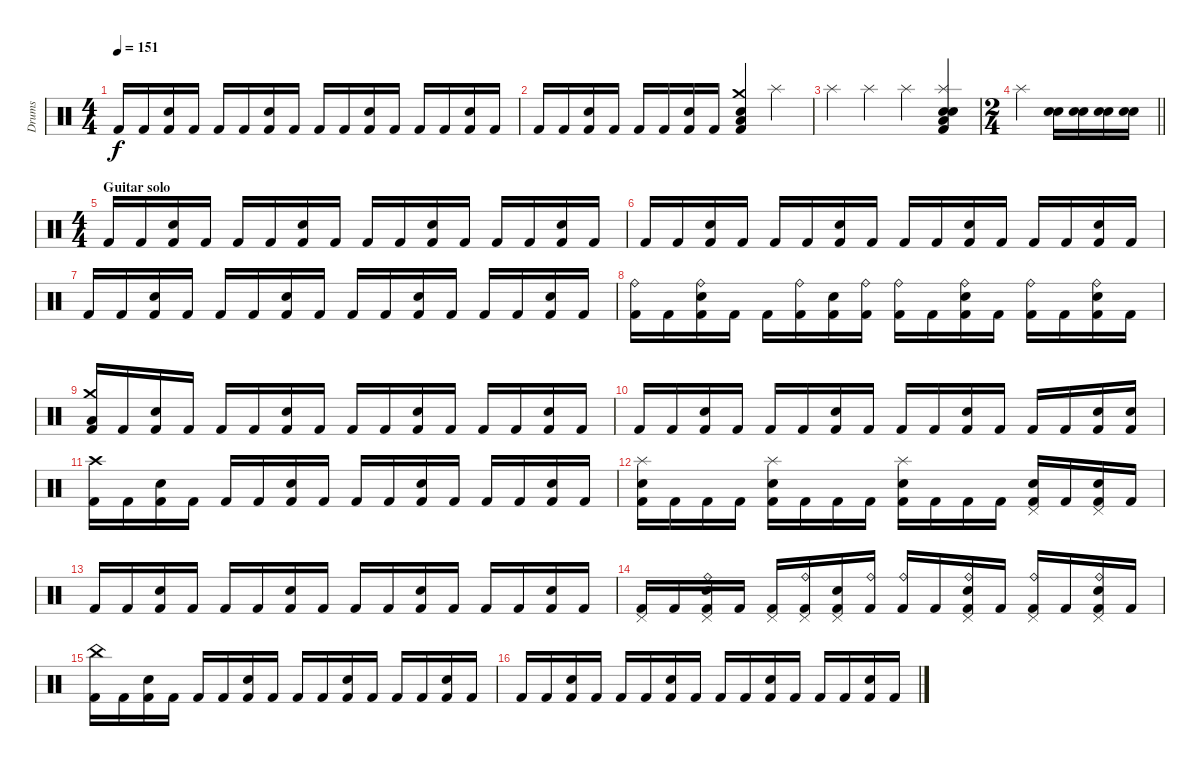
\track ("Drums" "Drums") {instrument percussion}
\staff {score}
\articulation defaults
\ts (4 4)
\tempo 151
\clef neutral
\ks c "Kick (hit) 2".16{dy f} "Kick (hit) 2".16
("Snare (hit) 2" "Kick (hit) 2").16 "Kick (hit) 2".16 "Kick (hit) 2".16 "Kick (hit) 2".16 ("Snare (hit) 2" "Kick (hit) 2").16 "Kick (hit) 2".16 "Kick (hit) 2".16 "Kick (hit) 2".16 ("Snare (hit) 2" "Kick (hit) 2").16 "Kick (hit) 2".16 "Kick (hit) 2".16 "Kick (hit) 2".16 ("Snare (hit) 2" "Kick (hit) 2").16 "Kick (hit) 2".16 |
"Kick (hit) 2".16 "Kick (hit) 2".16 ("Snare (hit) 2" "Kick (hit) 2").16 "Kick (hit) 2".16 "Kick (hit) 2".16 "Kick (hit) 2".16 ("Snare (hit) 2" "Kick (hit) 2").16 "Kick (hit) 2".16 ("Crash medium (hit)" "Low Floor Tom (hit)" "Snare (hit) 2" "Kick (hit) 2").4 "Splash (hit)".4 |
"Splash (hit)".4 "Splash (hit)".4 "Splash (hit)".4 ("Splash (hit)" "Snare (hit) 2" "Electric Snare (hit)" "Low Floor Tom (hit)" "Kick (hit) 2").4 |
\ts (2 4)
\barLineRight lightlight "Splash (hit)".4
("Electric Snare (hit)" "Snare (hit) 2").16 ("Electric Snare (hit)" "Snare (hit) 2").16 ("Electric Snare (hit)" "Snare (hit) 2").16 ("Electric Snare (hit)" "Snare (hit) 2").16 |
\ts (4 4)
\section ("" "Guitar solo")
"Kick (hit) 2".16 "Kick (hit) 2".16 ("Snare (hit) 2" "Kick (hit) 2").16 "Kick (hit) 2".16 "Kick (hit) 2".16 "Kick (hit) 2".16 ("Snare (hit) 2" "Kick (hit) 2").16 "Kick (hit) 2".16 "Kick (hit) 2".16 "Kick (hit) 2".16 ("Snare (hit) 2" "Kick (hit) 2").16 "Kick (hit) 2".16 "Kick (hit) 2".16 "Kick (hit) 2".16 ("Snare (hit) 2" "Kick (hit) 2").16 "Kick (hit) 2".16 |
"Kick (hit) 2".16 "Kick (hit) 2".16 ("Snare (hit) 2" "Kick (hit) 2").16 "Kick (hit) 2".16 "Kick (hit) 2".16 "Kick (hit) 2".16 ("Snare (hit) 2" "Kick (hit) 2").16 "Kick (hit) 2".16 "Kick (hit) 2".16 "Kick (hit) 2".16 ("Snare (hit) 2" "Kick (hit) 2").16 "Kick (hit) 2".16 "Kick (hit) 2".16 "Kick (hit) 2".16 ("Snare (hit) 2" "Kick (hit) 2").16 "Kick (hit) 2".16 |
"Kick (hit) 2".16 "Kick (hit) 2".16 ("Snare (hit) 2" "Kick (hit) 2").16 "Kick (hit) 2".16 "Kick (hit) 2".16 "Kick (hit) 2".16 ("Snare (hit) 2" "Kick (hit) 2").16 "Kick (hit) 2".16 "Kick (hit) 2".16 "Kick (hit) 2".16 ("Snare (hit) 2" "Kick (hit) 2").16 "Kick (hit) 2".16 "Kick (hit) 2".16 "Kick (hit) 2".16 ("Snare (hit) 2" "Kick (hit) 2").16 "Kick (hit) 2".16 |
("Ride (bell)" "Kick (hit) 2").16 "Kick (hit) 2".16 ("Ride (bell)" "Snare (hit) 2" "Kick (hit) 2").16 "Kick (hit) 2".16 "Kick (hit) 2".16 ("Ride (bell)" "Kick (hit) 2").16 ("Snare (hit) 2" "Kick (hit) 2").16 ("Ride (bell)" "Kick (hit) 2").16 ("Ride (bell)" "Kick (hit) 2").16 "Kick (hit) 2".16 ("Ride (bell)" "Snare (hit) 2" "Kick (hit) 2").16 "Kick (hit) 2".16 ("Ride (bell)" "Kick (hit) 2").16 "Kick (hit) 2".16 ("Ride (bell)" "Snare (hit) 2" "Kick (hit) 2").16 "Kick (hit) 2".16 |
("Crash medium (hit)" "Low Floor Tom (hit)" "Kick (hit) 2").16 "Kick (hit) 2".16 ("Snare (hit) 2" "Kick (hit) 2").16 "Kick (hit) 2".16 "Kick (hit) 2".16 "Kick (hit) 2".16 ("Snare (hit) 2" "Kick (hit) 2").16 "Kick (hit) 2".16 "Kick (hit) 2".16 "Kick (hit) 2".16 ("Snare (hit) 2" "Kick (hit) 2").16 "Kick (hit) 2".16 "Kick (hit) 2".16 "Kick (hit) 2".16 ("Snare (hit) 2" "Kick (hit) 2").16 "Kick (hit) 2".16 |
"Kick (hit) 2".16 "Kick (hit) 2".16 ("Snare (hit) 2" "Kick (hit) 2").16 "Kick (hit) 2".16 "Kick (hit) 2".16 "Kick (hit) 2".16 ("Snare (hit) 2" "Kick (hit) 2").16 "Kick (hit) 2".16 "Kick (hit) 2".16 "Kick (hit) 2".16 ("Snare (hit) 2" "Kick (hit) 2").16 "Kick (hit) 2".16 "Kick (hit) 2".16 "Kick (hit) 2".16 ("Snare (hit) 2" "Kick (hit) 2").16 ("Snare (hit) 2" "Kick (hit) 2").16 |
("Crash high (hit)" "Kick (hit) 2").16 "Kick (hit) 2".16 ("Snare (hit) 2" "Kick (hit) 2").16 "Kick (hit) 2".16 "Kick (hit) 2".16 "Kick (hit) 2".16 ("Snare (hit) 2" "Kick (hit) 2").16 "Kick (hit) 2".16 "Kick (hit) 2".16 "Kick (hit) 2".16 ("Snare (hit) 2" "Kick (hit) 2").16 "Kick (hit) 2".16 "Kick (hit) 2".16 "Kick (hit) 2".16 ("Snare (hit) 2" "Kick (hit) 2").16 "Kick (hit) 2".16 |
("Splash (hit)" "Snare (hit) 2" "Kick (hit) 2").16 "Kick (hit) 2".16 "Kick (hit) 2".16 "Kick (hit) 2".16 ("Splash (hit)" "Snare (hit) 2" "Kick (hit) 2").16 "Kick (hit) 2".16 "Kick (hit) 2".16 "Kick (hit) 2".16 ("Splash (hit)" "Snare (hit) 2" "Kick (hit) 2").16 "Kick (hit) 2".16 "Kick (hit) 2".16 "Kick (hit) 2".16 ("Pedal Hi-Hat (hit)" "Snare (hit) 2" "Kick (hit) 2").16 "Kick (hit) 2".16 ("Pedal Hi-Hat (hit)" "Snare (hit) 2" "Kick (hit) 2").16 "Kick (hit) 2".16 |
"Kick (hit) 2".16 "Kick (hit) 2".16 ("Snare (hit) 2" "Kick (hit) 2").16 "Kick (hit) 2".16 "Kick (hit) 2".16 "Kick (hit) 2".16 ("Snare (hit) 2" "Kick (hit) 2").16 "Kick (hit) 2".16 "Kick (hit) 2".16 "Kick (hit) 2".16 ("Snare (hit) 2" "Kick (hit) 2").16 "Kick (hit) 2".16 "Kick (hit) 2".16 "Kick (hit) 2".16 ("Snare (hit) 2" "Kick (hit) 2").16 "Kick (hit) 2".16 |
("Pedal Hi-Hat (hit)" "Kick (hit) 2").16 "Kick (hit) 2".16 ("Pedal Hi-Hat (hit)" "Ride (bell)" "Snare (hit) 2" "Kick (hit) 2").16 "Kick (hit) 2".16 ("Pedal Hi-Hat (hit)" "Kick (hit) 2").16 ("Pedal Hi-Hat (hit)" "Ride (bell)" "Kick (hit) 2").16 ("Pedal Hi-Hat (hit)" "Snare (hit) 2" "Kick (hit) 2").16 ("Ride (bell)" "Kick (hit) 2").16 ("Ride (bell)" "Kick (hit) 2").16 "Kick (hit) 2".16 ("Pedal Hi-Hat (hit)" "Ride (bell)" "Snare (hit) 2" "Kick (hit) 2").16 "Kick (hit) 2".16 ("Pedal Hi-Hat (hit)" "Ride (bell)" "Kick (hit) 2").16 "Kick (hit) 2".16 ("Ride (bell)" "Pedal Hi-Hat (hit)" "Snare (hit) 2" "Kick (hit) 2").16 "Kick (hit) 2".16 |
("China (hit)" "Kick (hit) 2").16 "Kick (hit) 2".16 ("Snare (hit) 2" "Kick (hit) 2").16 "Kick (hit) 2".16 "Kick (hit) 2".16 "Kick (hit) 2".16 ("Snare (hit) 2" "Kick (hit) 2").16 "Kick (hit) 2".16 "Kick (hit) 2".16 "Kick (hit) 2".16 ("Snare (hit) 2" "Kick (hit) 2").16 "Kick (hit) 2".16 "Kick (hit) 2".16 "Kick (hit) 2".16 ("Snare (hit) 2" "Kick (hit) 2").16 "Kick (hit) 2".16 |
"Kick (hit) 2".16 "Kick (hit) 2".16 ("Snare (hit) 2" "Kick (hit) 2").16 "Kick (hit) 2".16 "Kick (hit) 2".16 "Kick (hit) 2".16 ("Snare (hit) 2" "Kick (hit) 2").16 "Kick (hit) 2".16 "Kick (hit) 2".16 "Kick (hit) 2".16 ("Snare (hit) 2" "Kick (hit) 2").16 "Kick (hit) 2".16 "Kick (hit) 2".16 "Kick (hit) 2".16 ("Snare (hit) 2" "Kick (hit) 2").16 "Kick (hit) 2".16
